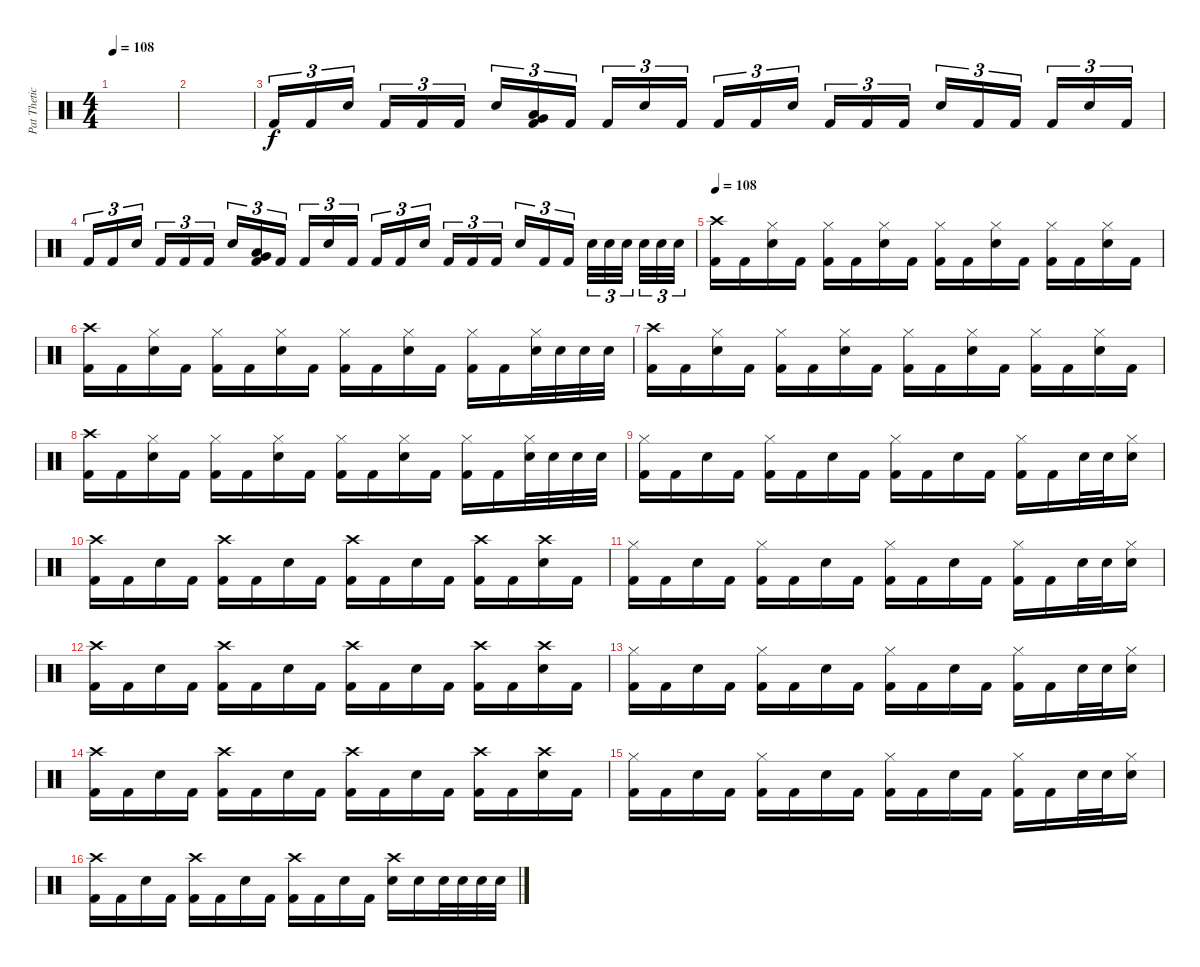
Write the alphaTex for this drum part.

\track ("Pat Thetic" "Pat Thetic") {instrument percussion}
\staff {score}
\articulation defaults
\ts (4 4)
\tempo 108
\tempo 75
\tempo 108
\clef neutral
\ks c
|
|
"Kick (hit) 2".16{tu (3 2)} "Kick (hit) 2".16{tu (3 2)} "Snare (hit) 2".16{tu (3 2)} "Kick (hit) 2".16{tu (3 2)} "Kick (hit) 2".16{tu (3 2)} "Kick (hit) 2".16{tu (3 2)} "Snare (hit) 2".16{tu (3 2)} ("Kick (hit) 2" "Very Low Tom (hit)" "Low Floor Tom (hit)").16{tu (3 2)} "Kick (hit) 2".16{tu (3 2)} "Kick (hit) 2".16{tu (3 2)} "Snare (hit) 2".16{tu (3 2)} "Kick (hit) 2".16{tu (3 2)} "Kick (hit) 2".16{tu (3 2)} "Kick (hit) 2".16{tu (3 2)} "Snare (hit) 2".16{tu (3 2)} "Kick (hit) 2".16{tu (3 2)} "Kick (hit) 2".16{tu (3 2)} "Kick (hit) 2".16{tu (3 2)} "Snare (hit) 2".16{tu (3 2)} "Kick (hit) 2".16{tu (3 2)} "Kick (hit) 2".16{tu (3 2)} "Kick (hit) 2".16{tu (3 2)} "Snare (hit) 2".16{tu (3 2)} "Kick (hit) 2".16{tu (3 2)} |
"Kick (hit) 2".16{tu (3 2)} "Kick (hit) 2".16{tu (3 2)} "Snare (hit) 2".16{tu (3 2)} "Kick (hit) 2".16{tu (3 2)} "Kick (hit) 2".16{tu (3 2)} "Kick (hit) 2".16{tu (3 2)} "Snare (hit) 2".16{tu (3 2)} ("Kick (hit) 2" "Very Low Tom (hit)" "Low Floor Tom (hit)").16{tu (3 2)} "Kick (hit) 2".16{tu (3 2)} "Kick (hit) 2".16{tu (3 2)} "Snare (hit) 2".16{tu (3 2)} "Kick (hit) 2".16{tu (3 2)} "Kick (hit) 2".16{tu (3 2)} "Kick (hit) 2".16{tu (3 2)} "Snare (hit) 2".16{tu (3 2)} "Kick (hit) 2".16{tu (3 2)} "Kick (hit) 2".16{tu (3 2)} "Kick (hit) 2".16{tu (3 2)} "Snare (hit) 2".16{tu (3 2)} "Kick (hit) 2".16{tu (3 2)} "Kick (hit) 2".16{tu (3 2)} "Snare (hit) 2".32{tu (3 2)} "Snare (hit) 2".32{tu (3 2)} "Snare (hit) 2".32{tu (3 2)} "Snare (hit) 2".32{tu (3 2)} "Snare (hit) 2".32{tu (3 2)} "Snare (hit) 2".32{tu (3 2)} |
\tempo 108
("Crash high (hit)" "Kick (hit) 2").16 "Kick (hit) 2".16 ("Hi-Hat (closed)" "Snare (hit) 2").16 "Kick (hit) 2".16 ("Hi-Hat (closed)" "Kick (hit) 2").16 "Kick (hit) 2".16 ("Hi-Hat (closed)" "Snare (hit) 2").16 "Kick (hit) 2".16 ("Hi-Hat (closed)" "Kick (hit) 2").16 "Kick (hit) 2".16 ("Hi-Hat (closed)" "Snare (hit) 2").16 "Kick (hit) 2".16 ("Hi-Hat (closed)" "Kick (hit) 2").16 "Kick (hit) 2".16 ("Hi-Hat (closed)" "Snare (hit) 2").16 "Kick (hit) 2".16 |
("Crash high (hit)" "Kick (hit) 2").16 "Kick (hit) 2".16 ("Hi-Hat (closed)" "Snare (hit) 2").16 "Kick (hit) 2".16 ("Hi-Hat (closed)" "Kick (hit) 2").16 "Kick (hit) 2".16 ("Hi-Hat (closed)" "Snare (hit) 2").16 "Kick (hit) 2".16 ("Hi-Hat (closed)" "Kick (hit) 2").16 "Kick (hit) 2".16 ("Hi-Hat (closed)" "Snare (hit) 2").16 "Kick (hit) 2".16 ("Hi-Hat (closed)" "Kick (hit) 2").16 "Kick (hit) 2".16 ("Hi-Hat (closed)" "Snare (hit) 2").32 "Snare (hit) 2".32 "Snare (hit) 2".32 "Snare (hit) 2".32 |
("Crash high (hit)" "Kick (hit) 2").16 "Kick (hit) 2".16 ("Hi-Hat (closed)" "Snare (hit) 2").16 "Kick (hit) 2".16 ("Hi-Hat (closed)" "Kick (hit) 2").16 "Kick (hit) 2".16 ("Hi-Hat (closed)" "Snare (hit) 2").16 "Kick (hit) 2".16 ("Hi-Hat (closed)" "Kick (hit) 2").16 "Kick (hit) 2".16 ("Hi-Hat (closed)" "Snare (hit) 2").16 "Kick (hit) 2".16 ("Hi-Hat (closed)" "Kick (hit) 2").16 "Kick (hit) 2".16 ("Hi-Hat (closed)" "Snare (hit) 2").16 "Kick (hit) 2".16 |
("Crash high (hit)" "Kick (hit) 2").16 "Kick (hit) 2".16 ("Hi-Hat (closed)" "Snare (hit) 2").16 "Kick (hit) 2".16 ("Hi-Hat (closed)" "Kick (hit) 2").16 "Kick (hit) 2".16 ("Hi-Hat (closed)" "Snare (hit) 2").16 "Kick (hit) 2".16 ("Hi-Hat (closed)" "Kick (hit) 2").16 "Kick (hit) 2".16 ("Hi-Hat (closed)" "Snare (hit) 2").16 "Kick (hit) 2".16 ("Hi-Hat (closed)" "Kick (hit) 2").16 "Kick (hit) 2".16 ("Hi-Hat (closed)" "Snare (hit) 2").32 "Snare (hit) 2".32 "Snare (hit) 2".32 "Snare (hit) 2".32 |
("Hi-Hat (closed)" "Kick (hit) 2").16 "Kick (hit) 2".16 "Snare (hit) 2".16 "Kick (hit) 2".16 ("Hi-Hat (closed)" "Kick (hit) 2").16 "Kick (hit) 2".16 "Snare (hit) 2".16 "Kick (hit) 2".16 ("Hi-Hat (closed)" "Kick (hit) 2").16 "Kick (hit) 2".16 "Snare (hit) 2".16 "Kick (hit) 2".16 ("Hi-Hat (closed)" "Kick (hit) 2").16 "Kick (hit) 2".16 "Snare (hit) 2".32 "Snare (hit) 2".32 ("Hi-Hat (closed)" "Snare (hit) 2").16 |
("Crash high (hit)" "Kick (hit) 2").16 "Kick (hit) 2".16 "Snare (hit) 2".16 "Kick (hit) 2".16 ("Crash high (hit)" "Kick (hit) 2").16 "Kick (hit) 2".16 "Snare (hit) 2".16 "Kick (hit) 2".16 ("Crash high (hit)" "Kick (hit) 2").16 "Kick (hit) 2".16 "Snare (hit) 2".16 "Kick (hit) 2".16 ("Crash high (hit)" "Kick (hit) 2").16 "Kick (hit) 2".16 ("Crash high (hit)" "Snare (hit) 2").16 "Kick (hit) 2".16 |
("Hi-Hat (closed)" "Kick (hit) 2").16 "Kick (hit) 2".16 "Snare (hit) 2".16 "Kick (hit) 2".16 ("Hi-Hat (closed)" "Kick (hit) 2").16 "Kick (hit) 2".16 "Snare (hit) 2".16 "Kick (hit) 2".16 ("Hi-Hat (closed)" "Kick (hit) 2").16 "Kick (hit) 2".16 "Snare (hit) 2".16 "Kick (hit) 2".16 ("Hi-Hat (closed)" "Kick (hit) 2").16 "Kick (hit) 2".16 "Snare (hit) 2".32 "Snare (hit) 2".32 ("Hi-Hat (closed)" "Snare (hit) 2").16 |
("Crash high (hit)" "Kick (hit) 2").16 "Kick (hit) 2".16 "Snare (hit) 2".16 "Kick (hit) 2".16 ("Crash high (hit)" "Kick (hit) 2").16 "Kick (hit) 2".16 "Snare (hit) 2".16 "Kick (hit) 2".16 ("Crash high (hit)" "Kick (hit) 2").16 "Kick (hit) 2".16 "Snare (hit) 2".16 "Kick (hit) 2".16 ("Crash high (hit)" "Kick (hit) 2").16 "Kick (hit) 2".16 ("Crash high (hit)" "Snare (hit) 2").16 "Kick (hit) 2".16 |
("Hi-Hat (closed)" "Kick (hit) 2").16 "Kick (hit) 2".16 "Snare (hit) 2".16 "Kick (hit) 2".16 ("Hi-Hat (closed)" "Kick (hit) 2").16 "Kick (hit) 2".16 "Snare (hit) 2".16 "Kick (hit) 2".16 ("Hi-Hat (closed)" "Kick (hit) 2").16 "Kick (hit) 2".16 "Snare (hit) 2".16 "Kick (hit) 2".16 ("Hi-Hat (closed)" "Kick (hit) 2").16 "Kick (hit) 2".16 "Snare (hit) 2".32 "Snare (hit) 2".32 ("Hi-Hat (closed)" "Snare (hit) 2").16 |
("Crash high (hit)" "Kick (hit) 2").16 "Kick (hit) 2".16 "Snare (hit) 2".16 "Kick (hit) 2".16 ("Crash high (hit)" "Kick (hit) 2").16 "Kick (hit) 2".16 "Snare (hit) 2".16 "Kick (hit) 2".16 ("Crash high (hit)" "Kick (hit) 2").16 "Kick (hit) 2".16 "Snare (hit) 2".16 "Kick (hit) 2".16 ("Crash high (hit)" "Kick (hit) 2").16 "Kick (hit) 2".16 ("Crash high (hit)" "Snare (hit) 2").16 "Kick (hit) 2".16 |
("Hi-Hat (closed)" "Kick (hit) 2").16 "Kick (hit) 2".16 "Snare (hit) 2".16 "Kick (hit) 2".16 ("Hi-Hat (closed)" "Kick (hit) 2").16 "Kick (hit) 2".16 "Snare (hit) 2".16 "Kick (hit) 2".16 ("Hi-Hat (closed)" "Kick (hit) 2").16 "Kick (hit) 2".16 "Snare (hit) 2".16 "Kick (hit) 2".16 ("Hi-Hat (closed)" "Kick (hit) 2").16 "Kick (hit) 2".16 "Snare (hit) 2".32 "Snare (hit) 2".32 ("Hi-Hat (closed)" "Snare (hit) 2").16 |
("Crash high (hit)" "Kick (hit) 2").16 "Kick (hit) 2".16 "Snare (hit) 2".16 "Kick (hit) 2".16 ("Crash high (hit)" "Kick (hit) 2").16 "Kick (hit) 2".16 "Snare (hit) 2".16 "Kick (hit) 2".16 ("Crash high (hit)" "Kick (hit) 2").16 "Kick (hit) 2".16 "Snare (hit) 2".16 "Kick (hit) 2".16 ("Crash high (hit)" "Snare (hit) 2").16 "Snare (hit) 2".16 "Snare (hit) 2".32 "Snare (hit) 2".32 "Snare (hit) 2".32 "Snare (hit) 2".32
